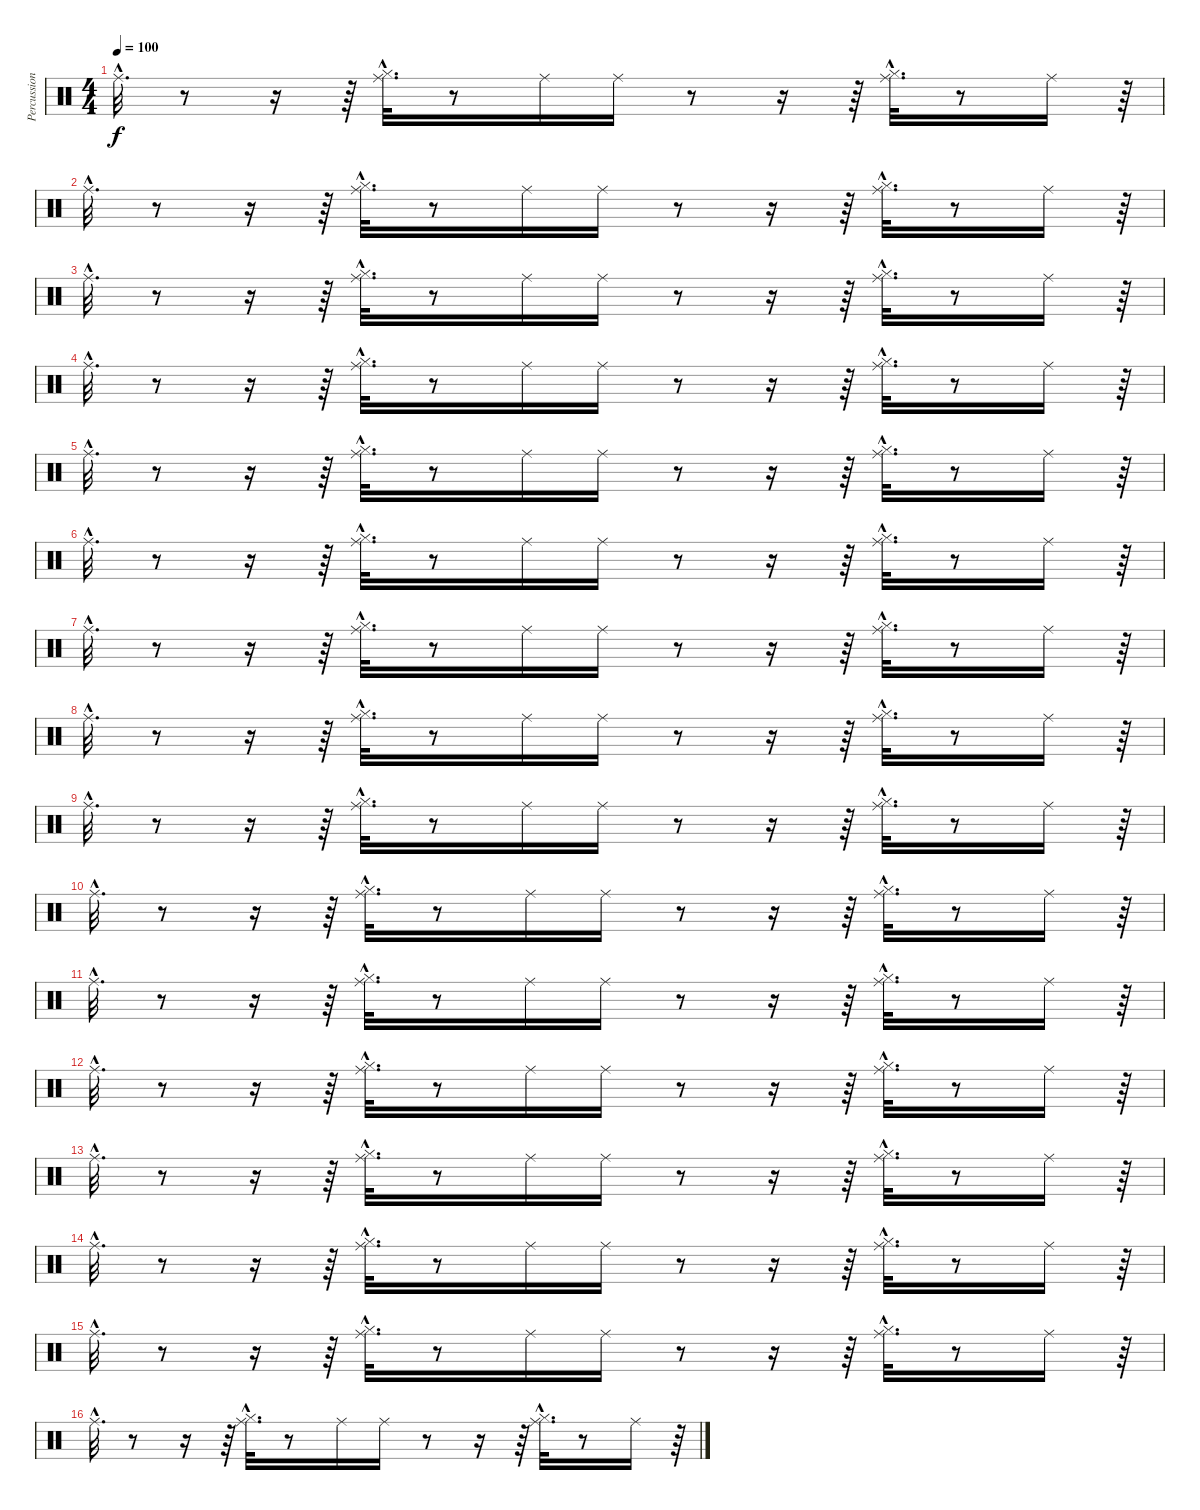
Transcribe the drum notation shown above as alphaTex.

\track ("Percussions" "Percussion") {instrument percussion}
\staff {score}
\articulation defaults
\ts (4 4)
\tempo 100
\clef neutral
\ks c "Ride (middle)"{hac}.32{d dy f}
r.8 r.16 r.64 ("Hi-Hat (closed)"{hac} "Ride (middle)"{hac}).32{d} r.8 "Ride (middle)".16 "Ride (middle)".16 r.8 r.16 r.64 ("Hi-Hat (closed)"{hac} "Ride (middle)"{hac}).32{d} r.8 "Ride (middle)".16 r.64 |
"Ride (middle)"{hac}.32{d} r.8 r.16 r.64 ("Hi-Hat (closed)"{hac} "Ride (middle)"{hac}).32{d} r.8 "Ride (middle)".16 "Ride (middle)".16 r.8 r.16 r.64 ("Hi-Hat (closed)"{hac} "Ride (middle)"{hac}).32{d} r.8 "Ride (middle)".16 r.64 |
"Ride (middle)"{hac}.32{d} r.8 r.16 r.64 ("Hi-Hat (closed)"{hac} "Ride (middle)"{hac}).32{d} r.8 "Ride (middle)".16 "Ride (middle)".16 r.8 r.16 r.64 ("Hi-Hat (closed)"{hac} "Ride (middle)"{hac}).32{d} r.8 "Ride (middle)".16 r.64 |
"Ride (middle)"{hac}.32{d} r.8 r.16 r.64 ("Hi-Hat (closed)"{hac} "Ride (middle)"{hac}).32{d} r.8 "Ride (middle)".16 "Ride (middle)".16 r.8 r.16 r.64 ("Hi-Hat (closed)"{hac} "Ride (middle)"{hac}).32{d} r.8 "Ride (middle)".16 r.64 |
"Ride (middle)"{hac}.32{d} r.8 r.16 r.64 ("Hi-Hat (closed)"{hac} "Ride (middle)"{hac}).32{d} r.8 "Ride (middle)".16 "Ride (middle)".16 r.8 r.16 r.64 ("Hi-Hat (closed)"{hac} "Ride (middle)"{hac}).32{d} r.8 "Ride (middle)".16 r.64 |
"Ride (middle)"{hac}.32{d} r.8 r.16 r.64 ("Hi-Hat (closed)"{hac} "Ride (middle)"{hac}).32{d} r.8 "Ride (middle)".16 "Ride (middle)".16 r.8 r.16 r.64 ("Hi-Hat (closed)"{hac} "Ride (middle)"{hac}).32{d} r.8 "Ride (middle)".16 r.64 |
"Ride (middle)"{hac}.32{d} r.8 r.16 r.64 ("Hi-Hat (closed)"{hac} "Ride (middle)"{hac}).32{d} r.8 "Ride (middle)".16 "Ride (middle)".16 r.8 r.16 r.64 ("Hi-Hat (closed)"{hac} "Ride (middle)"{hac}).32{d} r.8 "Ride (middle)".16 r.64 |
"Ride (middle)"{hac}.32{d} r.8 r.16 r.64 ("Hi-Hat (closed)"{hac} "Ride (middle)"{hac}).32{d} r.8 "Ride (middle)".16 "Ride (middle)".16 r.8 r.16 r.64 ("Hi-Hat (closed)"{hac} "Ride (middle)"{hac}).32{d} r.8 "Ride (middle)".16 r.64 |
"Ride (middle)"{hac}.32{d} r.8 r.16 r.64 ("Hi-Hat (closed)"{hac} "Ride (middle)"{hac}).32{d} r.8 "Ride (middle)".16 "Ride (middle)".16 r.8 r.16 r.64 ("Hi-Hat (closed)"{hac} "Ride (middle)"{hac}).32{d} r.8 "Ride (middle)".16 r.64 |
"Ride (middle)"{hac}.32{d} r.8 r.16 r.64 ("Hi-Hat (closed)"{hac} "Ride (middle)"{hac}).32{d} r.8 "Ride (middle)".16 "Ride (middle)".16 r.8 r.16 r.64 ("Hi-Hat (closed)"{hac} "Ride (middle)"{hac}).32{d} r.8 "Ride (middle)".16 r.64 |
"Ride (middle)"{hac}.32{d} r.8 r.16 r.64 ("Hi-Hat (closed)"{hac} "Ride (middle)"{hac}).32{d} r.8 "Ride (middle)".16 "Ride (middle)".16 r.8 r.16 r.64 ("Hi-Hat (closed)"{hac} "Ride (middle)"{hac}).32{d} r.8 "Ride (middle)".16 r.64 |
"Ride (middle)"{hac}.32{d} r.8 r.16 r.64 ("Hi-Hat (closed)"{hac} "Ride (middle)"{hac}).32{d} r.8 "Ride (middle)".16 "Ride (middle)".16 r.8 r.16 r.64 ("Hi-Hat (closed)"{hac} "Ride (middle)"{hac}).32{d} r.8 "Ride (middle)".16 r.64 |
"Ride (middle)"{hac}.32{d} r.8 r.16 r.64 ("Hi-Hat (closed)"{hac} "Ride (middle)"{hac}).32{d} r.8 "Ride (middle)".16 "Ride (middle)".16 r.8 r.16 r.64 ("Hi-Hat (closed)"{hac} "Ride (middle)"{hac}).32{d} r.8 "Ride (middle)".16 r.64 |
"Ride (middle)"{hac}.32{d} r.8 r.16 r.64 ("Hi-Hat (closed)"{hac} "Ride (middle)"{hac}).32{d} r.8 "Ride (middle)".16 "Ride (middle)".16 r.8 r.16 r.64 ("Hi-Hat (closed)"{hac} "Ride (middle)"{hac}).32{d} r.8 "Ride (middle)".16 r.64 |
"Ride (middle)"{hac}.32{d} r.8 r.16 r.64 ("Hi-Hat (closed)"{hac} "Ride (middle)"{hac}).32{d} r.8 "Ride (middle)".16 "Ride (middle)".16 r.8 r.16 r.64 ("Hi-Hat (closed)"{hac} "Ride (middle)"{hac}).32{d} r.8 "Ride (middle)".16 r.64 |
"Ride (middle)"{hac}.32{d} r.8 r.16 r.64 ("Hi-Hat (closed)"{hac} "Ride (middle)"{hac}).32{d} r.8 "Ride (middle)".16 "Ride (middle)".16 r.8 r.16 r.64 ("Hi-Hat (closed)"{hac} "Ride (middle)"{hac}).32{d} r.8 "Ride (middle)".16 r.64
